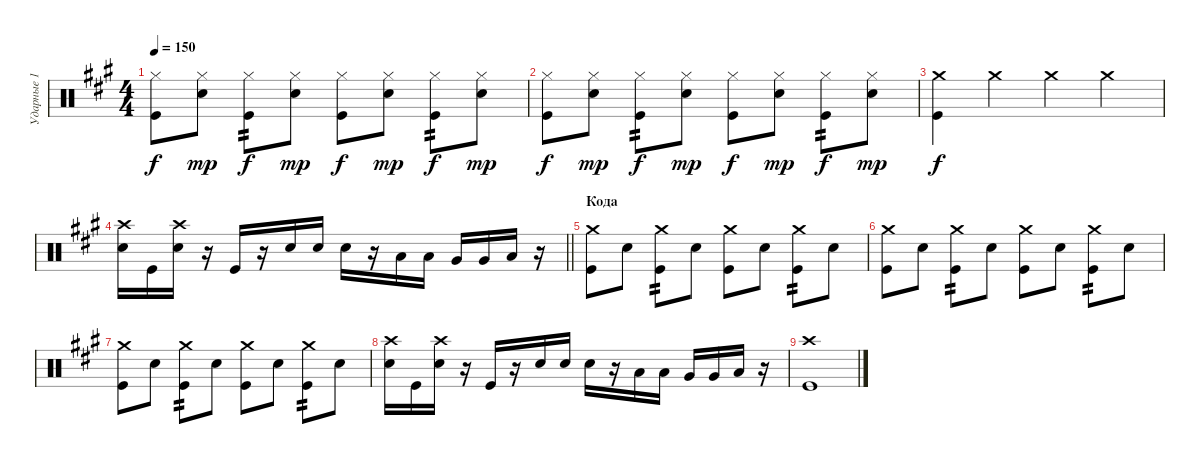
\track ("Ударные 1" "Ударные 1") {instrument percussion}
\staff {score}
\articulation defaults
\ts (4 4)
\tempo 150
\clef neutral
\ks f#minor
("Hi-Hat (closed)" "Kick (hit)").8{dy f} ("Hi-Hat (closed)" "Snare (hit) 2").8{dy mp} ("Hi-Hat (closed)" "Kick (hit)").8{tp 2 dy f} ("Hi-Hat (closed)" "Snare (hit) 2").8{dy mp} ("Hi-Hat (closed)" "Kick (hit)").8{dy f} ("Hi-Hat (closed)" "Snare (hit) 2").8{dy mp} ("Hi-Hat (closed)" "Kick (hit)").8{tp 2 dy f} ("Hi-Hat (closed)" "Snare (hit) 2").8{dy mp} |
("Hi-Hat (closed)" "Kick (hit)").8{dy f} ("Hi-Hat (closed)" "Snare (hit) 2").8{dy mp} ("Hi-Hat (closed)" "Kick (hit)").8{tp 2 dy f} ("Hi-Hat (closed)" "Snare (hit) 2").8{dy mp} ("Hi-Hat (closed)" "Kick (hit)").8{dy f} ("Hi-Hat (closed)" "Snare (hit) 2").8{dy mp} ("Hi-Hat (closed)" "Kick (hit)").8{tp 2 dy f} ("Hi-Hat (closed)" "Snare (hit) 2").8{dy mp} |
("Crash medium (hit)" "Kick (hit)").4{dy f} "Crash medium (hit)".4 "Crash medium (hit)".4 "Crash medium (hit)".4 |
\barLineRight lightlight
("Crash high (hit)" "Snare (hit) 2").16 "Kick (hit)".16 ("Crash high (hit)" "Snare (hit) 2").16 r.16 "Kick (hit)".16 r.16 "Snare (hit) 2".16 "Snare (hit) 2".16 "Snare (hit) 2".16 r.16 "Low Tom (hit)".16 "Low Tom (hit)".16 "Very Low Tom (hit)".16 "Very Low Tom (hit)".16 "Low Floor Tom (hit)".16 r.16 |
\section ("" "Кода")
("Crash medium (hit)" "Kick (hit)").8 "Snare (hit) 2".8 ("Crash medium (hit)" "Kick (hit)").8{tp 2} "Snare (hit) 2".8 ("Crash medium (hit)" "Kick (hit)").8 "Snare (hit) 2".8 ("Crash medium (hit)" "Kick (hit)").8{tp 2} "Snare (hit) 2".8 |
("Crash medium (hit)" "Kick (hit)").8 "Snare (hit) 2".8 ("Crash medium (hit)" "Kick (hit)").8{tp 2} "Snare (hit) 2".8 ("Crash medium (hit)" "Kick (hit)").8 "Snare (hit) 2".8 ("Crash medium (hit)" "Kick (hit)").8{tp 2} "Snare (hit) 2".8 |
("Crash medium (hit)" "Kick (hit)").8 "Snare (hit) 2".8 ("Crash medium (hit)" "Kick (hit)").8{tp 2} "Snare (hit) 2".8 ("Crash medium (hit)" "Kick (hit)").8 "Snare (hit) 2".8 ("Crash medium (hit)" "Kick (hit)").8{tp 2} "Snare (hit) 2".8 |
("Crash high (hit)" "Snare (hit) 2").16 "Kick (hit)".16 ("Crash high (hit)" "Snare (hit) 2").16 r.16 "Kick (hit)".16 r.16 "Snare (hit) 2".16 "Snare (hit) 2".16 "Snare (hit) 2".16 r.16 "Low Tom (hit)".16 "Low Tom (hit)".16 "Very Low Tom (hit)".16 "Very Low Tom (hit)".16 "Low Floor Tom (hit)".16 r.16 |
("Crash high (hit)" "Kick (hit)").1
